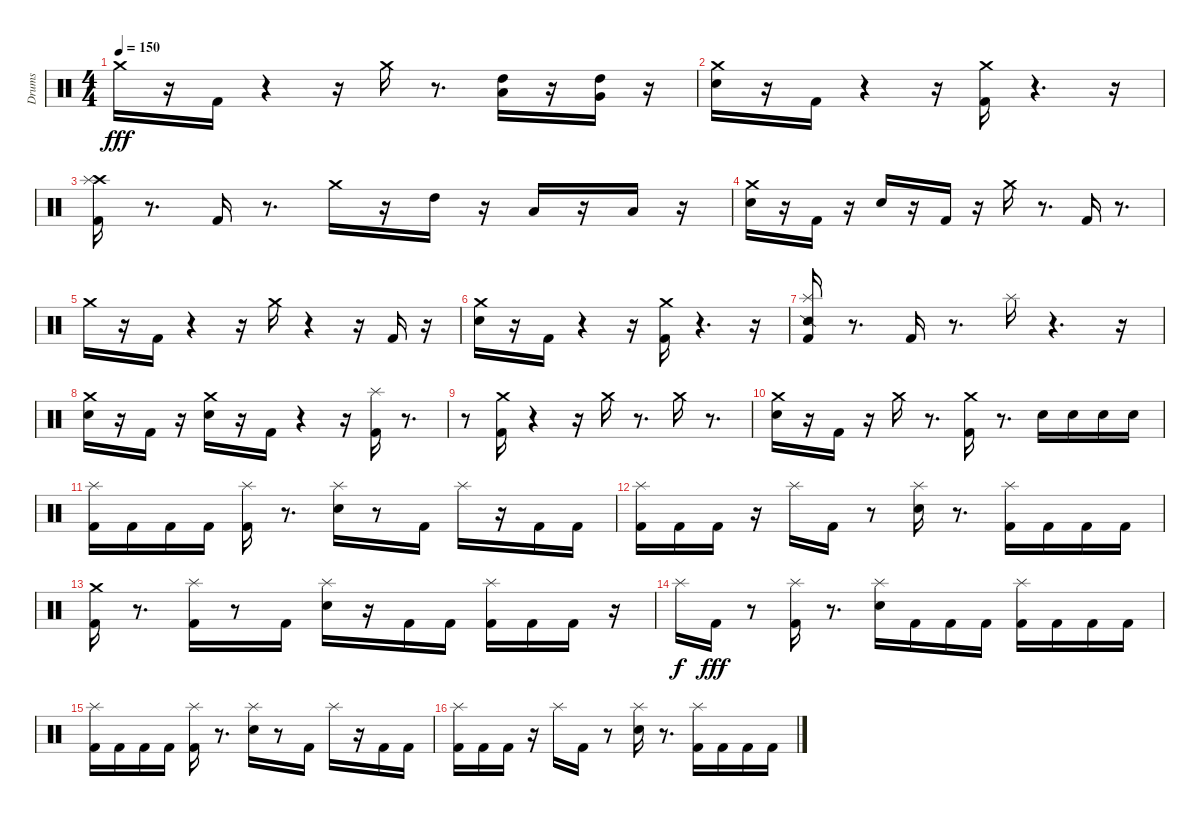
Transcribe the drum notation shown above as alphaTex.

\track ("Drums" "Drums") {instrument percussion}
\staff {score}
\articulation defaults
\ts (4 4)
\tempo 150
\clef neutral
\ks c "Crash medium (hit)".16{dy fff}
r.16 "Kick (hit) 2".16 r.4 r.16 "Crash medium (hit)".16 r.8{d} ("Low Tom (hit)" "High Tom (hit)").16 r.16 ("Very Low Tom (hit)" "High Tom (hit)").16 r.16 |
("Crash medium (hit)" "Snare (hit) 2").16 r.16 "Kick (hit) 2".16 r.4 r.16 ("Kick (hit) 2" "Crash medium (hit)").16 r.4{d} r.16 |
("Crash high (hit)" "Kick (hit) 2" "Splash (hit)").16 r.8{d} "Kick (hit) 2".16 r.8{d} "Crash medium (hit)".16 r.16 "High Tom (hit)".16 r.16 "Low Tom (hit)".16 r.16 "Low Tom (hit)".16 r.16 |
("Snare (hit) 2" "Crash medium (hit)").16 r.16 "Kick (hit) 2".16 r.16 "Snare (hit) 2".16 r.16 "Kick (hit) 2".16 r.16 "Crash medium (hit)".16 r.8{d} "Kick (hit) 2".16 r.8{d} |
"Crash medium (hit)".16 r.16 "Kick (hit) 2".16 r.4 r.16 "Crash medium (hit)".16 r.4 r.16 "Kick (hit) 2".16 r.16 |
("Crash medium (hit)" "Snare (hit) 2").16 r.16 "Kick (hit) 2".16 r.4 r.16 ("Kick (hit) 2" "Crash medium (hit)").16 r.4{d} r.16 |
("Snare (side stick) 2" "Kick (hit) 2" "Splash (hit)").16 r.8{d} "Kick (hit) 2".16 r.8{d} "Splash (hit)".16 r.4{d} r.16 |
("Crash medium (hit)" "Snare (hit) 2").16 r.16 "Kick (hit) 2".16 r.16 ("Crash medium (hit)" "Snare (hit) 2").16 r.16 "Kick (hit) 2".16 r.4 r.16 ("Kick (hit) 2" "Splash (hit)").16 r.8{d} |
r.8 ("Kick (hit) 2" "Crash medium (hit)").16 r.4 r.16 "Crash medium (hit)".16 r.8{d} "Crash medium (hit)".16 r.8{d} |
("Crash medium (hit)" "Snare (hit) 2").16 r.16 "Kick (hit) 2".16 r.16 "Crash medium (hit)".16 r.8{d} ("Kick (hit) 2" "Crash medium (hit)").16 r.8{d} "Snare (hit) 2".16 "Snare (hit) 2".16 "Snare (hit) 2".16 "Snare (hit) 2".16 |
("Kick (hit) 2" "Splash (hit)").16 "Kick (hit) 2".16 "Kick (hit) 2".16 "Kick (hit) 2".16 ("Kick (hit) 2" "Splash (hit)").16 r.8{d} ("Snare (hit) 2" "Splash (hit)").16 r.8 "Kick (hit) 2".16 "Splash (hit)".16 r.16 "Kick (hit) 2".16 "Kick (hit) 2".16 |
("Kick (hit) 2" "Splash (hit)").16 "Kick (hit) 2".16 "Kick (hit) 2".16 r.16 "Splash (hit)".16 "Kick (hit) 2".16 r.8 ("Snare (hit) 2" "Splash (hit)").16 r.8{d} ("Kick (hit) 2" "Splash (hit)").16 "Kick (hit) 2".16 "Kick (hit) 2".16 "Kick (hit) 2".16 |
("Kick (hit) 2" "Crash medium (hit)").16 r.8{d} ("Kick (hit) 2" "Splash (hit)").16 r.8 "Kick (hit) 2".16 ("Snare (hit) 2" "Splash (hit)").16 r.16 "Kick (hit) 2".16 "Kick (hit) 2".16 ("Kick (hit) 2" "Splash (hit)").16 "Kick (hit) 2".16 "Kick (hit) 2".16 r.16 |
"Splash (hit)".16{dy f} "Kick (hit) 2".16{dy fff} r.8 ("Kick (hit) 2" "Splash (hit)").16 r.8{d} ("Snare (hit) 2" "Splash (hit)").16 "Kick (hit) 2".16 "Kick (hit) 2".16 "Kick (hit) 2".16 ("Kick (hit) 2" "Splash (hit)").16 "Kick (hit) 2".16 "Kick (hit) 2".16 "Kick (hit) 2".16 |
("Kick (hit) 2" "Splash (hit)").16 "Kick (hit) 2".16 "Kick (hit) 2".16 "Kick (hit) 2".16 ("Kick (hit) 2" "Splash (hit)").16 r.8{d} ("Snare (hit) 2" "Splash (hit)").16 r.8 "Kick (hit) 2".16 "Splash (hit)".16 r.16 "Kick (hit) 2".16 "Kick (hit) 2".16 |
("Kick (hit) 2" "Splash (hit)").16 "Kick (hit) 2".16 "Kick (hit) 2".16 r.16 "Splash (hit)".16 "Kick (hit) 2".16 r.8 ("Snare (hit) 2" "Splash (hit)").16 r.8{d} ("Kick (hit) 2" "Splash (hit)").16 "Kick (hit) 2".16 "Kick (hit) 2".16 "Kick (hit) 2".16
